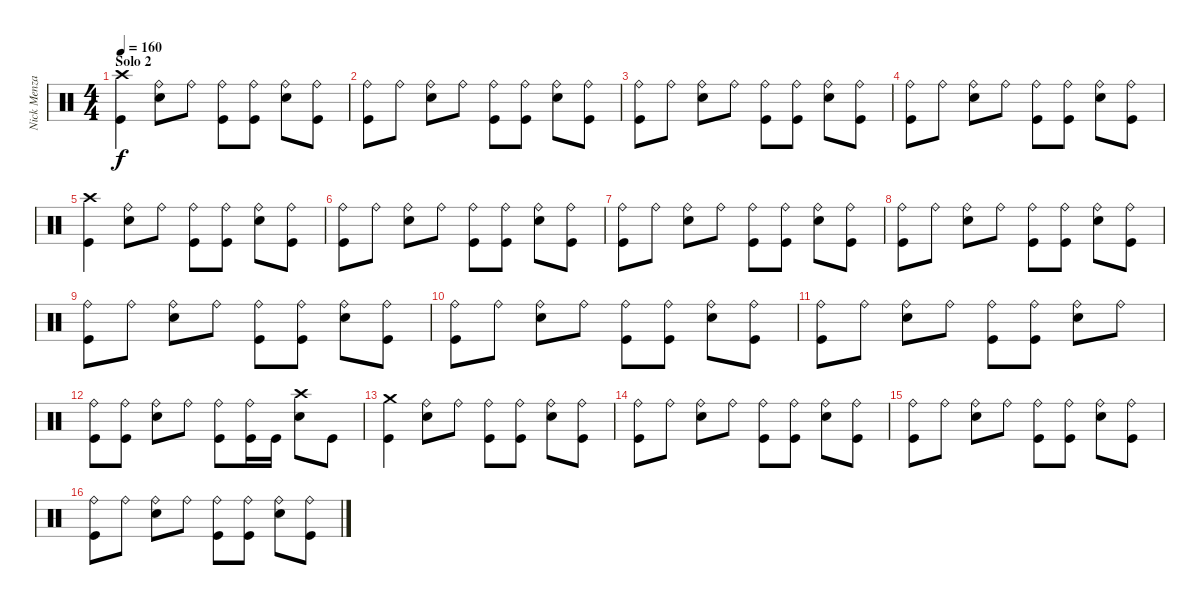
\track ("Nick Menza" "Nick Menza") {instrument percussion}
\staff {score}
\articulation defaults
\ts (4 4)
\section ("" "Solo 2")
\tempo 160
\clef neutral
\ks c
("Crash high (hit)" "Kick (hit)").4{dy f} ("Ride (bell)" "Snare (hit) 2").8 "Ride (bell)".8 ("Ride (bell)" "Kick (hit)").8 ("Ride (bell)" "Kick (hit)").8 ("Ride (bell)" "Snare (hit) 2").8 ("Ride (bell)" "Kick (hit)").8 |
("Ride (bell)" "Kick (hit)").8 "Ride (bell)".8 ("Ride (bell)" "Snare (hit) 2").8 "Ride (bell)".8 ("Ride (bell)" "Kick (hit)").8 ("Ride (bell)" "Kick (hit)").8 ("Ride (bell)" "Snare (hit) 2").8 ("Ride (bell)" "Kick (hit)").8 |
("Ride (bell)" "Kick (hit)").8 "Ride (bell)".8 ("Ride (bell)" "Snare (hit) 2").8 "Ride (bell)".8 ("Ride (bell)" "Kick (hit)").8 ("Ride (bell)" "Kick (hit)").8 ("Ride (bell)" "Snare (hit) 2").8 ("Ride (bell)" "Kick (hit)").8 |
("Ride (bell)" "Kick (hit)").8 "Ride (bell)".8 ("Ride (bell)" "Snare (hit) 2").8 "Ride (bell)".8 ("Ride (bell)" "Kick (hit)").8 ("Ride (bell)" "Kick (hit)").8 ("Ride (bell)" "Snare (hit) 2").8 ("Ride (bell)" "Kick (hit)").8 |
("Crash high (hit)" "Kick (hit)").4 ("Ride (bell)" "Snare (hit) 2").8 "Ride (bell)".8 ("Ride (bell)" "Kick (hit)").8 ("Ride (bell)" "Kick (hit)").8 ("Ride (bell)" "Snare (hit) 2").8 ("Ride (bell)" "Kick (hit)").8 |
("Ride (bell)" "Kick (hit)").8 "Ride (bell)".8 ("Ride (bell)" "Snare (hit) 2").8 "Ride (bell)".8 ("Ride (bell)" "Kick (hit)").8 ("Ride (bell)" "Kick (hit)").8 ("Ride (bell)" "Snare (hit) 2").8 ("Ride (bell)" "Kick (hit)").8 |
("Ride (bell)" "Kick (hit)").8 "Ride (bell)".8 ("Ride (bell)" "Snare (hit) 2").8 "Ride (bell)".8 ("Ride (bell)" "Kick (hit)").8 ("Ride (bell)" "Kick (hit)").8 ("Ride (bell)" "Snare (hit) 2").8 ("Ride (bell)" "Kick (hit)").8 |
("Ride (bell)" "Kick (hit)").8 "Ride (bell)".8 ("Ride (bell)" "Snare (hit) 2").8 "Ride (bell)".8 ("Ride (bell)" "Kick (hit)").8 ("Ride (bell)" "Kick (hit)").8 ("Ride (bell)" "Snare (hit) 2").8 ("Ride (bell)" "Kick (hit)").8 |
("Ride (bell)" "Kick (hit)").8 "Ride (bell)".8 ("Ride (bell)" "Snare (hit) 2").8 "Ride (bell)".8 ("Ride (bell)" "Kick (hit)").8 ("Ride (bell)" "Kick (hit)").8 ("Ride (bell)" "Snare (hit) 2").8 ("Ride (bell)" "Kick (hit)").8 |
("Ride (bell)" "Kick (hit)").8 "Ride (bell)".8 ("Ride (bell)" "Snare (hit) 2").8 "Ride (bell)".8 ("Ride (bell)" "Kick (hit)").8 ("Ride (bell)" "Kick (hit)").8 ("Ride (bell)" "Snare (hit) 2").8 ("Ride (bell)" "Kick (hit)").8 |
("Ride (bell)" "Kick (hit)").8 "Ride (bell)".8 ("Ride (bell)" "Snare (hit) 2").8 "Ride (bell)".8 ("Ride (bell)" "Kick (hit)").8 ("Ride (bell)" "Kick (hit)").8 ("Ride (bell)" "Snare (hit) 2").8 "Ride (bell)".8 |
("Ride (bell)" "Kick (hit)").8 ("Ride (bell)" "Kick (hit)").8 ("Ride (bell)" "Snare (hit) 2").8 "Ride (bell)".8 ("Ride (bell)" "Kick (hit)").8 ("Ride (bell)" "Kick (hit)").16 "Kick (hit)".16 ("Crash high (hit)" "Snare (hit) 2").8 "Kick (hit)".8 |
("Crash medium (hit)" "Kick (hit)").4 ("Ride (bell)" "Snare (hit) 2").8 "Ride (bell)".8 ("Ride (bell)" "Kick (hit)").8 ("Ride (bell)" "Kick (hit)").8 ("Ride (bell)" "Snare (hit) 2").8 ("Ride (bell)" "Kick (hit)").8 |
("Ride (bell)" "Kick (hit)").8 "Ride (bell)".8 ("Ride (bell)" "Snare (hit) 2").8 "Ride (bell)".8 ("Ride (bell)" "Kick (hit)").8 ("Ride (bell)" "Kick (hit)").8 ("Ride (bell)" "Snare (hit) 2").8 ("Ride (bell)" "Kick (hit)").8 |
("Ride (bell)" "Kick (hit)").8 "Ride (bell)".8 ("Ride (bell)" "Snare (hit) 2").8 "Ride (bell)".8 ("Ride (bell)" "Kick (hit)").8 ("Ride (bell)" "Kick (hit)").8 ("Ride (bell)" "Snare (hit) 2").8 ("Ride (bell)" "Kick (hit)").8 |
("Ride (bell)" "Kick (hit)").8 "Ride (bell)".8 ("Ride (bell)" "Snare (hit) 2").8 "Ride (bell)".8 ("Ride (bell)" "Kick (hit)").8 ("Ride (bell)" "Kick (hit)").8 ("Ride (bell)" "Snare (hit) 2").8 ("Ride (bell)" "Kick (hit)").8
